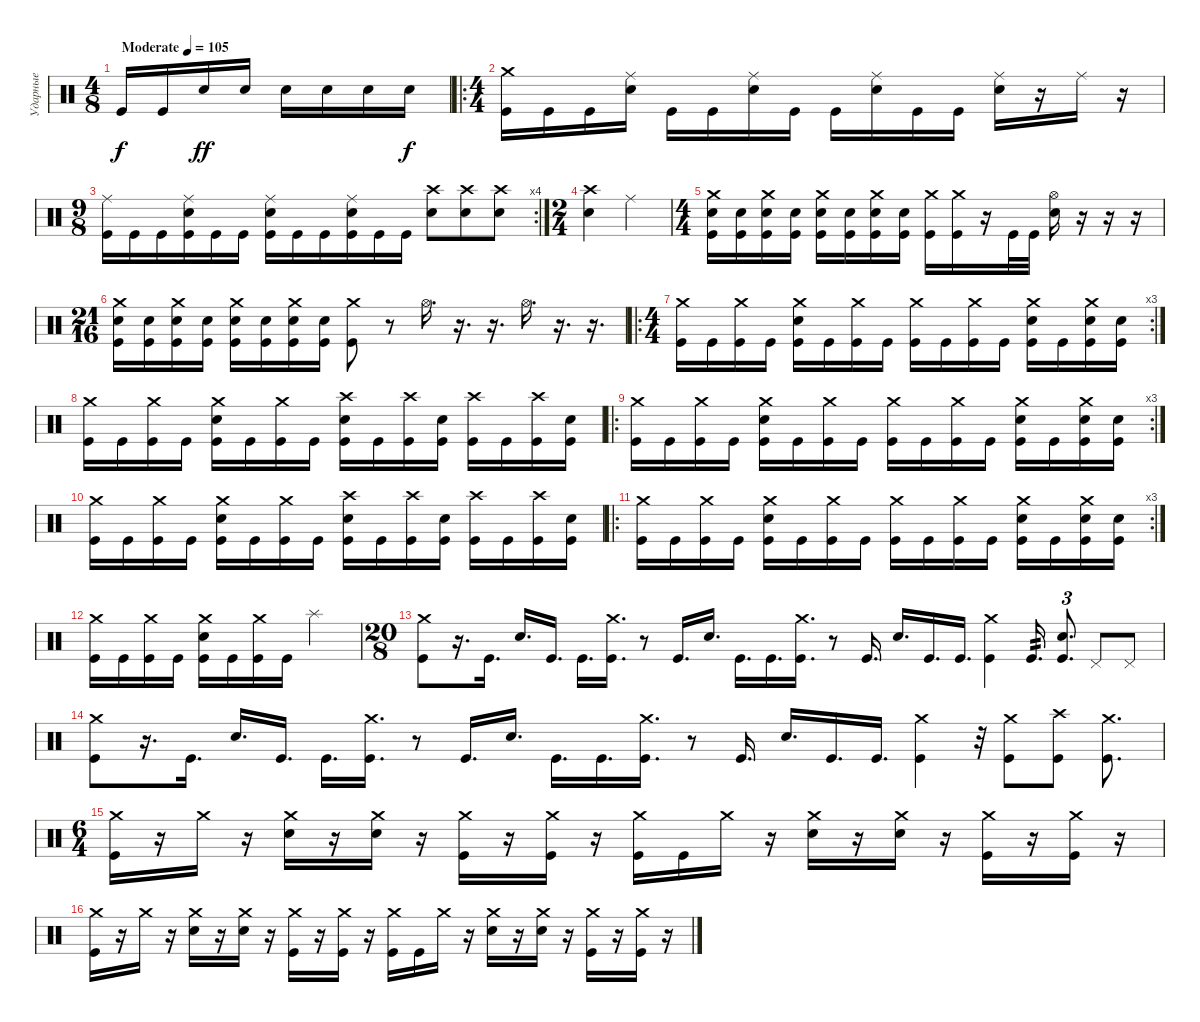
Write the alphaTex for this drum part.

\track ("Ударные" "Ударные") {instrument percussion}
\staff {score}
\articulation defaults
\ts (4 8)
\tempo (105 "Moderate")
\clef neutral
\ks c "Kick (hit)".16{dy f} "Kick (hit)".16 "Electric Snare (hit)".16{dy ff} "Electric Snare (hit)".16 "Electric Snare (hit)".16 "Electric Snare (hit)".16 "Electric Snare (hit)".16 "Electric Snare (hit)".16{dy f}
|
\ro
\ts (4 4)
("Crash medium (hit)" "Kick (hit)").16 "Kick (hit)".16 "Kick (hit)".16 ("Ride (middle)" "Electric Snare (hit)").16 "Kick (hit)".16 "Kick (hit)".16 ("Ride (middle)" "Electric Snare (hit)").16 "Kick (hit)".16 "Kick (hit)".16 ("Ride (middle)" "Electric Snare (hit)").16 "Kick (hit)".16 "Kick (hit)".16 ("Ride (middle)" "Electric Snare (hit)").16 r.16 "Ride (middle)".16 r.16 |
\rc 4
\ts (9 8)
("Ride (middle)" "Kick (hit)").16 "Kick (hit)".16 "Kick (hit)".16 ("Ride (middle)" "Electric Snare (hit)" "Kick (hit)").16 "Kick (hit)".16 "Kick (hit)".16 ("Ride (middle)" "Electric Snare (hit)" "Kick (hit)").16 "Kick (hit)".16 "Kick (hit)".16 ("Ride (middle)" "Electric Snare (hit)" "Kick (hit)").16 "Kick (hit)".16 "Kick (hit)".16 ("Crash high (hit)" "Electric Snare (hit)").8 ("Crash high (hit)" "Electric Snare (hit)").8 ("Crash high (hit)" "Electric Snare (hit)").8 |
\ts (2 4)
("Crash high (hit)" "Electric Snare (hit)").4 "Ride (middle)".4 |
\ts (4 4)
("Crash medium (hit)" "Electric Snare (hit)" "Kick (hit)").16 ("Electric Snare (hit)" "Kick (hit)").16 ("Crash medium (hit)" "Electric Snare (hit)" "Kick (hit)").16 ("Electric Snare (hit)" "Kick (hit)").16 ("Crash medium (hit)" "Electric Snare (hit)" "Kick (hit)").16 ("Electric Snare (hit)" "Kick (hit)").16 ("Crash medium (hit)" "Electric Snare (hit)" "Kick (hit)").16 ("Electric Snare (hit)" "Kick (hit)").16 ("Crash medium (hit)" "Kick (hit)").16 ("Crash medium (hit)" "Kick (hit)").16 r.16 "Kick (hit)".32 "Kick (hit)".32 ("Hi-Hat (open)" "Electric Snare (hit)").16 r.16 r.16 r.16 |
\ts (21 16)
("Crash medium (hit)" "Electric Snare (hit)" "Kick (hit)").16 ("Electric Snare (hit)" "Kick (hit)").16 ("Crash medium (hit)" "Electric Snare (hit)" "Kick (hit)").16 ("Electric Snare (hit)" "Kick (hit)").16 ("Crash medium (hit)" "Electric Snare (hit)" "Kick (hit)").16 ("Electric Snare (hit)" "Kick (hit)").16 ("Crash medium (hit)" "Electric Snare (hit)" "Kick (hit)").16 ("Electric Snare (hit)" "Kick (hit)").16 ("Crash medium (hit)" "Kick (hit)").8 r.8 "Hi-Hat (open)".16{d} r.16{d} r.16{d} "Hi-Hat (open)".16{d} r.16{d} r.16{d} |
\ro
\rc 3
\ts (4 4)
("Crash medium (hit)" "Kick (hit)").16 "Kick (hit)".16 ("Crash medium (hit)" "Kick (hit)").16 "Kick (hit)".16 ("Crash medium (hit)" "Electric Snare (hit)" "Kick (hit)").16 "Kick (hit)".16 ("Crash medium (hit)" "Kick (hit)").16 "Kick (hit)".16 ("Crash medium (hit)" "Kick (hit)").16 "Kick (hit)".16 ("Crash medium (hit)" "Kick (hit)").16 "Kick (hit)".16 ("Crash medium (hit)" "Electric Snare (hit)" "Kick (hit)").16 "Kick (hit)".16 ("Crash medium (hit)" "Electric Snare (hit)" "Kick (hit)").16 ("Electric Snare (hit)" "Kick (hit)").16 |
("Crash medium (hit)" "Kick (hit)").16 "Kick (hit)".16 ("Crash medium (hit)" "Kick (hit)").16 "Kick (hit)".16 ("Crash medium (hit)" "Electric Snare (hit)" "Kick (hit)").16 "Kick (hit)".16 ("Crash medium (hit)" "Kick (hit)").16 "Kick (hit)".16 ("Crash high (hit)" "Electric Snare (hit)" "Kick (hit)").16 "Kick (hit)".16 ("Crash high (hit)" "Kick (hit)").16 ("Electric Snare (hit)" "Kick (hit)").16 ("Crash high (hit)" "Kick (hit)").16 "Kick (hit)".16 ("Crash high (hit)" "Kick (hit)").16 ("Electric Snare (hit)" "Kick (hit)").16 |
\ro
\rc 3
("Crash medium (hit)" "Kick (hit)").16 "Kick (hit)".16 ("Crash medium (hit)" "Kick (hit)").16 "Kick (hit)".16 ("Crash medium (hit)" "Electric Snare (hit)" "Kick (hit)").16 "Kick (hit)".16 ("Crash medium (hit)" "Kick (hit)").16 "Kick (hit)".16 ("Crash medium (hit)" "Kick (hit)").16 "Kick (hit)".16 ("Crash medium (hit)" "Kick (hit)").16 "Kick (hit)".16 ("Crash medium (hit)" "Electric Snare (hit)" "Kick (hit)").16 "Kick (hit)".16 ("Crash medium (hit)" "Electric Snare (hit)" "Kick (hit)").16 ("Electric Snare (hit)" "Kick (hit)").16 |
("Crash medium (hit)" "Kick (hit)").16 "Kick (hit)".16 ("Crash medium (hit)" "Kick (hit)").16 "Kick (hit)".16 ("Crash medium (hit)" "Electric Snare (hit)" "Kick (hit)").16 "Kick (hit)".16 ("Crash medium (hit)" "Kick (hit)").16 "Kick (hit)".16 ("Crash high (hit)" "Electric Snare (hit)" "Kick (hit)").16 "Kick (hit)".16 ("Crash high (hit)" "Kick (hit)").16 ("Electric Snare (hit)" "Kick (hit)").16 ("Crash high (hit)" "Kick (hit)").16 "Kick (hit)".16 ("Crash high (hit)" "Kick (hit)").16 ("Electric Snare (hit)" "Kick (hit)").16 |
\ro
\rc 3
("Crash medium (hit)" "Kick (hit)").16 "Kick (hit)".16 ("Crash medium (hit)" "Kick (hit)").16 "Kick (hit)".16 ("Crash medium (hit)" "Electric Snare (hit)" "Kick (hit)").16 "Kick (hit)".16 ("Crash medium (hit)" "Kick (hit)").16 "Kick (hit)".16 ("Crash medium (hit)" "Kick (hit)").16 "Kick (hit)".16 ("Crash medium (hit)" "Kick (hit)").16 "Kick (hit)".16 ("Crash medium (hit)" "Electric Snare (hit)" "Kick (hit)").16 "Kick (hit)".16 ("Crash medium (hit)" "Electric Snare (hit)" "Kick (hit)").16 ("Electric Snare (hit)" "Kick (hit)").16 |
("Crash medium (hit)" "Kick (hit)").16 "Kick (hit)".16 ("Crash medium (hit)" "Kick (hit)").16 "Kick (hit)".16 ("Crash medium (hit)" "Electric Snare (hit)" "Kick (hit)").16 "Kick (hit)".16 ("Crash medium (hit)" "Kick (hit)").16 "Kick (hit)".16 "Splash (hit)".2 |
\ts (20 8)
("Crash medium (hit)" "Kick (hit)").8 r.16{d} "Kick (hit)".16{d} "Electric Snare (hit)".16{d} "Kick (hit)".16{d} "Kick (hit)".16{d} ("Crash medium (hit)" "Kick (hit)").16{d} r.8 "Kick (hit)".16{d} "Electric Snare (hit)".16{d} "Kick (hit)".16{d} "Kick (hit)".16{d} ("Crash medium (hit)" "Kick (hit)").16{d} r.8 "Kick (hit)".16{d} "Electric Snare (hit)".16{d} "Kick (hit)".16{d} "Kick (hit)".16{d} ("Crash medium (hit)" "Kick (hit)").4 "Kick (hit)".16{d tp 2} ("Electric Snare (hit)" "Kick (hit)").8{d tu (3 2)} "Pedal Hi-Hat (hit)".8 "Pedal Hi-Hat (hit)".8 |
("Crash medium (hit)" "Kick (hit)").8 r.16{d} "Kick (hit)".16{d} "Electric Snare (hit)".16{d} "Kick (hit)".16{d} "Kick (hit)".16{d} ("Crash medium (hit)" "Kick (hit)").16{d} r.8 "Kick (hit)".16{d} "Electric Snare (hit)".16{d} "Kick (hit)".16{d} "Kick (hit)".16{d} ("Crash medium (hit)" "Kick (hit)").16{d} r.8 "Kick (hit)".16{d} "Electric Snare (hit)".16{d} "Kick (hit)".16{d} "Kick (hit)".16{d} ("Crash medium (hit)" "Kick (hit)").4 r.32 ("Crash medium (hit)" "Kick (hit)").8 ("Crash high (hit)" "Kick (hit)").8 ("Crash medium (hit)" "Kick (hit)").8{d} |
\ts (6 4)
("Crash medium (hit)" "Kick (hit)").16 r.16 "Crash medium (hit)".16 r.16 ("Crash medium (hit)" "Electric Snare (hit)").16 r.16 ("Crash medium (hit)" "Electric Snare (hit)").16 r.16 ("Crash medium (hit)" "Kick (hit)").16 r.16 ("Crash medium (hit)" "Kick (hit)").16 r.16 ("Crash medium (hit)" "Kick (hit)").16 "Kick (hit)".16 "Crash medium (hit)".16 r.16 ("Crash medium (hit)" "Electric Snare (hit)").16 r.16 ("Crash medium (hit)" "Electric Snare (hit)").16 r.16 ("Crash medium (hit)" "Kick (hit)").16 r.16 ("Crash medium (hit)" "Kick (hit)").16 r.16 |
("Crash medium (hit)" "Kick (hit)").16 r.16 "Crash medium (hit)".16 r.16 ("Crash medium (hit)" "Electric Snare (hit)").16 r.16 ("Crash medium (hit)" "Electric Snare (hit)").16 r.16 ("Crash medium (hit)" "Kick (hit)").16 r.16 ("Crash medium (hit)" "Kick (hit)").16 r.16 ("Crash medium (hit)" "Kick (hit)").16 "Kick (hit)".16 "Crash medium (hit)".16 r.16 ("Crash medium (hit)" "Electric Snare (hit)").16 r.16 ("Crash medium (hit)" "Electric Snare (hit)").16 r.16 ("Crash medium (hit)" "Kick (hit)").16 r.16 ("Crash medium (hit)" "Kick (hit)").16 r.16
